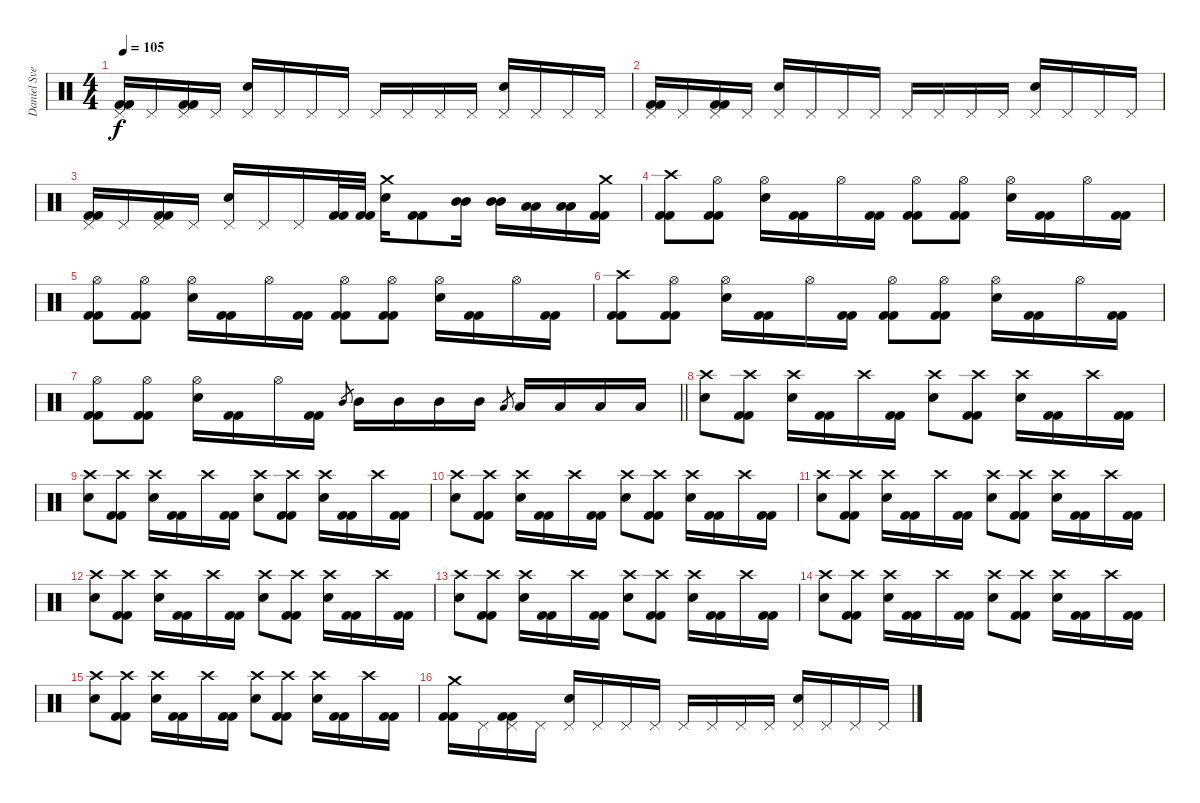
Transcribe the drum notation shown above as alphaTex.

\track ("Daniel Svensson" "Daniel Sve") {instrument percussion}
\staff {score}
\articulation defaults
\ts (4 4)
\tempo 105
\clef neutral
\ks c
("Pedal Hi-Hat (hit)" "Kick (hit) 2" "Kick (hit) 2").16{dy f} "Pedal Hi-Hat (hit)".16 ("Pedal Hi-Hat (hit)" "Kick (hit) 2" "Kick (hit) 2").16 "Pedal Hi-Hat (hit)".16 ("Pedal Hi-Hat (hit)" "Electric Snare (hit)").16 "Pedal Hi-Hat (hit)".16 "Pedal Hi-Hat (hit)".16 "Pedal Hi-Hat (hit)".16 "Pedal Hi-Hat (hit)".16 "Pedal Hi-Hat (hit)".16 "Pedal Hi-Hat (hit)".16 "Pedal Hi-Hat (hit)".16 ("Pedal Hi-Hat (hit)" "Electric Snare (hit)").16 "Pedal Hi-Hat (hit)".16 "Pedal Hi-Hat (hit)".16 "Pedal Hi-Hat (hit)".16 |
("Pedal Hi-Hat (hit)" "Kick (hit) 2" "Kick (hit) 2").16 "Pedal Hi-Hat (hit)".16 ("Pedal Hi-Hat (hit)" "Kick (hit) 2" "Kick (hit) 2").16 "Pedal Hi-Hat (hit)".16 ("Pedal Hi-Hat (hit)" "Electric Snare (hit)").16 "Pedal Hi-Hat (hit)".16 "Pedal Hi-Hat (hit)".16 "Pedal Hi-Hat (hit)".16 "Pedal Hi-Hat (hit)".16 "Pedal Hi-Hat (hit)".16 "Pedal Hi-Hat (hit)".16 "Pedal Hi-Hat (hit)".16 ("Pedal Hi-Hat (hit)" "Electric Snare (hit)").16 "Pedal Hi-Hat (hit)".16 "Pedal Hi-Hat (hit)".16 "Pedal Hi-Hat (hit)".16 |
("Pedal Hi-Hat (hit)" "Kick (hit) 2" "Kick (hit) 2").16 "Pedal Hi-Hat (hit)".16 ("Pedal Hi-Hat (hit)" "Kick (hit) 2" "Kick (hit) 2").16 "Pedal Hi-Hat (hit)".16 ("Pedal Hi-Hat (hit)" "Electric Snare (hit)").16 "Pedal Hi-Hat (hit)".16 "Pedal Hi-Hat (hit)".16 ("Kick (hit) 2" "Kick (hit) 2").32 ("Kick (hit) 2" "Kick (hit) 2").32 ("Crash medium (hit)" "Electric Snare (hit)").16 ("Kick (hit) 2" "Kick (hit) 2").8 ("Mid Tom (hit)" "Mid Tom (hit)").16 ("Mid Tom (hit)" "Mid Tom (hit)").16 ("Low Tom (hit)" "Low Tom (hit)").16 ("Low Tom (hit)" "Low Tom (hit)").16 ("Crash medium (hit)" "Kick (hit) 2" "Kick (hit) 2").16 |
("Crash high (hit)" "Kick (hit) 2" "Kick (hit) 2").8 ("Hi-Hat (open)" "Kick (hit) 2" "Kick (hit) 2").8 ("Hi-Hat (open)" "Electric Snare (hit)").16 ("Kick (hit) 2" "Kick (hit) 2").16 "Hi-Hat (open)".16 ("Kick (hit) 2" "Kick (hit) 2").16 ("Hi-Hat (open)" "Kick (hit) 2" "Kick (hit) 2").8 ("Hi-Hat (open)" "Kick (hit) 2" "Kick (hit) 2").8 ("Hi-Hat (open)" "Electric Snare (hit)").16 ("Kick (hit) 2" "Kick (hit) 2").16 "Hi-Hat (open)".16 ("Kick (hit) 2" "Kick (hit) 2").16 |
("Hi-Hat (open)" "Kick (hit) 2" "Kick (hit) 2").8 ("Hi-Hat (open)" "Kick (hit) 2" "Kick (hit) 2").8 ("Hi-Hat (open)" "Electric Snare (hit)").16 ("Kick (hit) 2" "Kick (hit) 2").16 "Hi-Hat (open)".16 ("Kick (hit) 2" "Kick (hit) 2").16 ("Hi-Hat (open)" "Kick (hit) 2" "Kick (hit) 2").8 ("Hi-Hat (open)" "Kick (hit) 2" "Kick (hit) 2").8 ("Hi-Hat (open)" "Electric Snare (hit)").16 ("Kick (hit) 2" "Kick (hit) 2").16 "Hi-Hat (open)".16 ("Kick (hit) 2" "Kick (hit) 2").16 |
("Crash high (hit)" "Kick (hit) 2" "Kick (hit) 2").8 ("Hi-Hat (open)" "Kick (hit) 2" "Kick (hit) 2").8 ("Hi-Hat (open)" "Electric Snare (hit)").16 ("Kick (hit) 2" "Kick (hit) 2").16 "Hi-Hat (open)".16 ("Kick (hit) 2" "Kick (hit) 2").16 ("Hi-Hat (open)" "Kick (hit) 2" "Kick (hit) 2").8 ("Hi-Hat (open)" "Kick (hit) 2" "Kick (hit) 2").8 ("Hi-Hat (open)" "Electric Snare (hit)").16 ("Kick (hit) 2" "Kick (hit) 2").16 "Hi-Hat (open)".16 ("Kick (hit) 2" "Kick (hit) 2").16 |
\barLineRight lightlight
("Hi-Hat (open)" "Kick (hit) 2" "Kick (hit) 2").8 ("Hi-Hat (open)" "Kick (hit) 2" "Kick (hit) 2").8 ("Hi-Hat (open)" "Electric Snare (hit)").16 ("Kick (hit) 2" "Kick (hit) 2").16 "Hi-Hat (open)".16 ("Kick (hit) 2" "Kick (hit) 2").16 "Mid Tom (hit)".8{gr} "Mid Tom (hit)".16 "Mid Tom (hit)".16 "Mid Tom (hit)".16 "Mid Tom (hit)".16 "Low Tom (hit)".8{gr} "Low Tom (hit)".16 "Low Tom (hit)".16 "Low Tom (hit)".16 "Low Tom (hit)".16 |
("Crash high (hit)" "Electric Snare (hit)").8 ("Crash high (hit)" "Kick (hit) 2" "Kick (hit) 2").8 ("Crash high (hit)" "Electric Snare (hit)").16 ("Kick (hit) 2" "Kick (hit) 2").16 "Crash high (hit)".16 ("Kick (hit) 2" "Kick (hit) 2").16 ("Crash high (hit)" "Electric Snare (hit)").8 ("Crash high (hit)" "Kick (hit) 2" "Kick (hit) 2").8 ("Crash high (hit)" "Electric Snare (hit)").16 ("Kick (hit) 2" "Kick (hit) 2").16 "Crash high (hit)".16 ("Kick (hit) 2" "Kick (hit) 2").16 |
("Crash high (hit)" "Electric Snare (hit)").8 ("Crash high (hit)" "Kick (hit) 2" "Kick (hit) 2").8 ("Crash high (hit)" "Electric Snare (hit)").16 ("Kick (hit) 2" "Kick (hit) 2").16 "Crash high (hit)".16 ("Kick (hit) 2" "Kick (hit) 2").16 ("Crash high (hit)" "Electric Snare (hit)").8 ("Crash high (hit)" "Kick (hit) 2" "Kick (hit) 2").8 ("Crash high (hit)" "Electric Snare (hit)").16 ("Kick (hit) 2" "Kick (hit) 2").16 "Crash high (hit)".16 ("Kick (hit) 2" "Kick (hit) 2").16 |
("Crash high (hit)" "Electric Snare (hit)").8 ("Crash high (hit)" "Kick (hit) 2" "Kick (hit) 2").8 ("Crash high (hit)" "Electric Snare (hit)").16 ("Kick (hit) 2" "Kick (hit) 2").16 "Crash high (hit)".16 ("Kick (hit) 2" "Kick (hit) 2").16 ("Crash high (hit)" "Electric Snare (hit)").8 ("Crash high (hit)" "Kick (hit) 2" "Kick (hit) 2").8 ("Crash high (hit)" "Electric Snare (hit)").16 ("Kick (hit) 2" "Kick (hit) 2").16 "Crash high (hit)".16 ("Kick (hit) 2" "Kick (hit) 2").16 |
("Crash high (hit)" "Electric Snare (hit)").8 ("Crash high (hit)" "Kick (hit) 2" "Kick (hit) 2").8 ("Crash high (hit)" "Electric Snare (hit)").16 ("Kick (hit) 2" "Kick (hit) 2").16 "Crash high (hit)".16 ("Kick (hit) 2" "Kick (hit) 2").16 ("Crash high (hit)" "Electric Snare (hit)").8 ("Crash high (hit)" "Kick (hit) 2" "Kick (hit) 2").8 ("Crash high (hit)" "Electric Snare (hit)").16 ("Kick (hit) 2" "Kick (hit) 2").16 "Crash high (hit)".16 ("Kick (hit) 2" "Kick (hit) 2").16 |
("Crash high (hit)" "Electric Snare (hit)").8 ("Crash high (hit)" "Kick (hit) 2" "Kick (hit) 2").8 ("Crash high (hit)" "Electric Snare (hit)").16 ("Kick (hit) 2" "Kick (hit) 2").16 "Crash high (hit)".16 ("Kick (hit) 2" "Kick (hit) 2").16 ("Crash high (hit)" "Electric Snare (hit)").8 ("Crash high (hit)" "Kick (hit) 2" "Kick (hit) 2").8 ("Crash high (hit)" "Electric Snare (hit)").16 ("Kick (hit) 2" "Kick (hit) 2").16 "Crash high (hit)".16 ("Kick (hit) 2" "Kick (hit) 2").16 |
("Crash high (hit)" "Electric Snare (hit)").8 ("Crash high (hit)" "Kick (hit) 2" "Kick (hit) 2").8 ("Crash high (hit)" "Electric Snare (hit)").16 ("Kick (hit) 2" "Kick (hit) 2").16 "Crash high (hit)".16 ("Kick (hit) 2" "Kick (hit) 2").16 ("Crash high (hit)" "Electric Snare (hit)").8 ("Crash high (hit)" "Kick (hit) 2" "Kick (hit) 2").8 ("Crash high (hit)" "Electric Snare (hit)").16 ("Kick (hit) 2" "Kick (hit) 2").16 "Crash high (hit)".16 ("Kick (hit) 2" "Kick (hit) 2").16 |
("Crash high (hit)" "Electric Snare (hit)").8 ("Crash high (hit)" "Kick (hit) 2" "Kick (hit) 2").8 ("Crash high (hit)" "Electric Snare (hit)").16 ("Kick (hit) 2" "Kick (hit) 2").16 "Crash high (hit)".16 ("Kick (hit) 2" "Kick (hit) 2").16 ("Crash high (hit)" "Electric Snare (hit)").8 ("Crash high (hit)" "Kick (hit) 2" "Kick (hit) 2").8 ("Crash high (hit)" "Electric Snare (hit)").16 ("Kick (hit) 2" "Kick (hit) 2").16 "Crash high (hit)".16 ("Kick (hit) 2" "Kick (hit) 2").16 |
("Crash high (hit)" "Electric Snare (hit)").8 ("Crash high (hit)" "Kick (hit) 2" "Kick (hit) 2").8 ("Crash high (hit)" "Electric Snare (hit)").16 ("Kick (hit) 2" "Kick (hit) 2").16 "Crash high (hit)".16 ("Kick (hit) 2" "Kick (hit) 2").16 ("Crash high (hit)" "Electric Snare (hit)").8 ("Crash high (hit)" "Kick (hit) 2" "Kick (hit) 2").8 ("Crash high (hit)" "Electric Snare (hit)").16 ("Kick (hit) 2" "Kick (hit) 2").16 "Crash high (hit)".16 ("Kick (hit) 2" "Kick (hit) 2").16 |
("Crash medium (hit)" "Kick (hit) 2" "Kick (hit) 2").16 "Pedal Hi-Hat (hit)".16 ("Pedal Hi-Hat (hit)" "Kick (hit) 2" "Kick (hit) 2").16 "Pedal Hi-Hat (hit)".16 ("Pedal Hi-Hat (hit)" "Electric Snare (hit)").16 "Pedal Hi-Hat (hit)".16 "Pedal Hi-Hat (hit)".16 "Pedal Hi-Hat (hit)".16 "Pedal Hi-Hat (hit)".16 "Pedal Hi-Hat (hit)".16 "Pedal Hi-Hat (hit)".16 "Pedal Hi-Hat (hit)".16 ("Pedal Hi-Hat (hit)" "Electric Snare (hit)").16 "Pedal Hi-Hat (hit)".16 "Pedal Hi-Hat (hit)".16 "Pedal Hi-Hat (hit)".16
